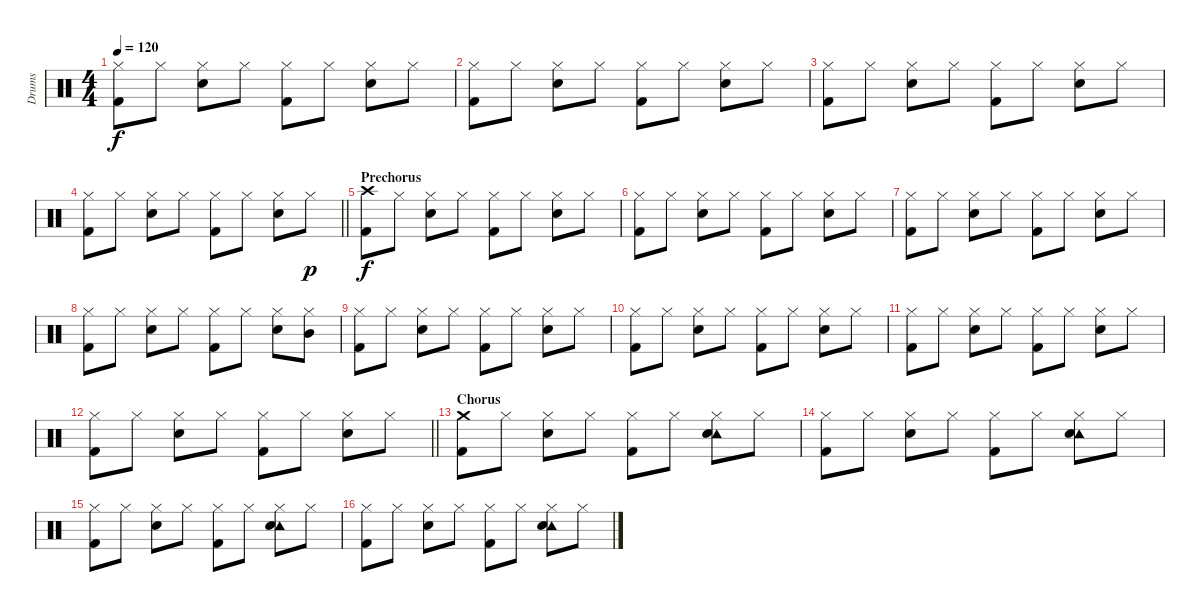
\track ("Drums" "Drums") {instrument percussion}
\staff {score}
\articulation defaults
\ts (4 4)
\tempo 120
\clef neutral
\ks c
("Hi-Hat (closed)" "Kick (hit) 2").8{dy f} "Hi-Hat (closed)".8 ("Hi-Hat (closed)" "Electric Snare (hit)").8 "Hi-Hat (closed)".8 ("Hi-Hat (closed)" "Kick (hit) 2").8 "Hi-Hat (closed)".8 ("Hi-Hat (closed)" "Electric Snare (hit)").8 "Hi-Hat (closed)".8 |
("Hi-Hat (closed)" "Kick (hit) 2").8 "Hi-Hat (closed)".8 ("Hi-Hat (closed)" "Electric Snare (hit)").8 "Hi-Hat (closed)".8 ("Hi-Hat (closed)" "Kick (hit) 2").8 "Hi-Hat (closed)".8 ("Hi-Hat (closed)" "Electric Snare (hit)").8 "Hi-Hat (closed)".8 |
("Hi-Hat (closed)" "Kick (hit) 2").8 "Hi-Hat (closed)".8 ("Hi-Hat (closed)" "Electric Snare (hit)").8 "Hi-Hat (closed)".8 ("Hi-Hat (closed)" "Kick (hit) 2").8 "Hi-Hat (closed)".8 ("Hi-Hat (closed)" "Electric Snare (hit)").8 "Hi-Hat (closed)".8 |
\barLineRight lightlight
("Hi-Hat (closed)" "Kick (hit) 2").8 "Hi-Hat (closed)".8 ("Hi-Hat (closed)" "Electric Snare (hit)").8 "Hi-Hat (closed)".8 ("Hi-Hat (closed)" "Kick (hit) 2").8 "Hi-Hat (closed)".8 ("Hi-Hat (closed)" "Electric Snare (hit)").8 "Hi-Hat (closed)".8{dy p} |
\section ("" "Prechorus")
("Crash high (hit)" "Kick (hit) 2").8{dy f} "Hi-Hat (closed)".8 ("Hi-Hat (closed)" "Electric Snare (hit)").8 "Hi-Hat (closed)".8 ("Hi-Hat (closed)" "Kick (hit) 2").8 "Hi-Hat (closed)".8 ("Hi-Hat (closed)" "Electric Snare (hit)").8 "Hi-Hat (closed)".8 |
("Hi-Hat (closed)" "Kick (hit) 2").8 "Hi-Hat (closed)".8 ("Hi-Hat (closed)" "Electric Snare (hit)").8 "Hi-Hat (closed)".8 ("Hi-Hat (closed)" "Kick (hit) 2").8 "Hi-Hat (closed)".8 ("Hi-Hat (closed)" "Electric Snare (hit)").8 "Hi-Hat (closed)".8 |
("Hi-Hat (closed)" "Kick (hit) 2").8 "Hi-Hat (closed)".8 ("Hi-Hat (closed)" "Electric Snare (hit)").8 "Hi-Hat (closed)".8 ("Hi-Hat (closed)" "Kick (hit) 2").8 "Hi-Hat (closed)".8 ("Hi-Hat (closed)" "Electric Snare (hit)").8 "Hi-Hat (closed)".8 |
("Hi-Hat (closed)" "Kick (hit) 2").8 "Hi-Hat (closed)".8 ("Hi-Hat (closed)" "Electric Snare (hit)").8 "Hi-Hat (closed)".8 ("Hi-Hat (closed)" "Kick (hit) 2").8 "Hi-Hat (closed)".8 ("Hi-Hat (closed)" "Electric Snare (hit)").8 ("Hi-Hat (closed)" "Mid Tom (hit)").8 |
("Hi-Hat (closed)" "Kick (hit) 2").8 "Hi-Hat (closed)".8 ("Hi-Hat (closed)" "Electric Snare (hit)").8 "Hi-Hat (closed)".8 ("Hi-Hat (closed)" "Kick (hit) 2").8 "Hi-Hat (closed)".8 ("Hi-Hat (closed)" "Electric Snare (hit)").8 "Hi-Hat (closed)".8 |
("Hi-Hat (closed)" "Kick (hit) 2").8 "Hi-Hat (closed)".8 ("Hi-Hat (closed)" "Electric Snare (hit)").8 "Hi-Hat (closed)".8 ("Hi-Hat (closed)" "Kick (hit) 2").8 "Hi-Hat (closed)".8 ("Hi-Hat (closed)" "Electric Snare (hit)").8 "Hi-Hat (closed)".8 |
("Hi-Hat (closed)" "Kick (hit) 2").8 "Hi-Hat (closed)".8 ("Hi-Hat (closed)" "Electric Snare (hit)").8 "Hi-Hat (closed)".8 ("Hi-Hat (closed)" "Kick (hit) 2").8 "Hi-Hat (closed)".8 ("Hi-Hat (closed)" "Electric Snare (hit)").8 "Hi-Hat (closed)".8 |
\barLineRight lightlight
("Hi-Hat (closed)" "Kick (hit) 2").8 "Hi-Hat (closed)".8 ("Hi-Hat (closed)" "Electric Snare (hit)").8 "Hi-Hat (closed)".8 ("Hi-Hat (closed)" "Kick (hit) 2").8 "Hi-Hat (closed)".8 ("Hi-Hat (closed)" "Electric Snare (hit)").8 "Hi-Hat (closed)".8 |
\section ("" "Chorus")
("Crash medium (hit)" "Kick (hit) 2").8 "Hi-Hat (closed)".8 ("Hi-Hat (closed)" "Electric Snare (hit)").8 "Hi-Hat (closed)".8 ("Hi-Hat (closed)" "Kick (hit) 2").8 "Hi-Hat (closed)".8 ("Hi-Hat (closed)" "Tambourine (hit)" "Electric Snare (hit)").8 "Hi-Hat (closed)".8 |
("Hi-Hat (closed)" "Kick (hit) 2").8 "Hi-Hat (closed)".8 ("Hi-Hat (closed)" "Electric Snare (hit)").8 "Hi-Hat (closed)".8 ("Hi-Hat (closed)" "Kick (hit) 2").8 "Hi-Hat (closed)".8 ("Hi-Hat (closed)" "Tambourine (hit)" "Electric Snare (hit)").8 "Hi-Hat (closed)".8 |
("Hi-Hat (closed)" "Kick (hit) 2").8 "Hi-Hat (closed)".8 ("Hi-Hat (closed)" "Electric Snare (hit)").8 "Hi-Hat (closed)".8 ("Hi-Hat (closed)" "Kick (hit) 2").8 "Hi-Hat (closed)".8 ("Hi-Hat (closed)" "Tambourine (hit)" "Electric Snare (hit)").8 "Hi-Hat (closed)".8 |
("Hi-Hat (closed)" "Kick (hit) 2").8 "Hi-Hat (closed)".8 ("Hi-Hat (closed)" "Electric Snare (hit)").8 "Hi-Hat (closed)".8 ("Hi-Hat (closed)" "Kick (hit) 2").8 "Hi-Hat (closed)".8 ("Hi-Hat (closed)" "Tambourine (hit)" "Electric Snare (hit)").8 "Hi-Hat (closed)".8
